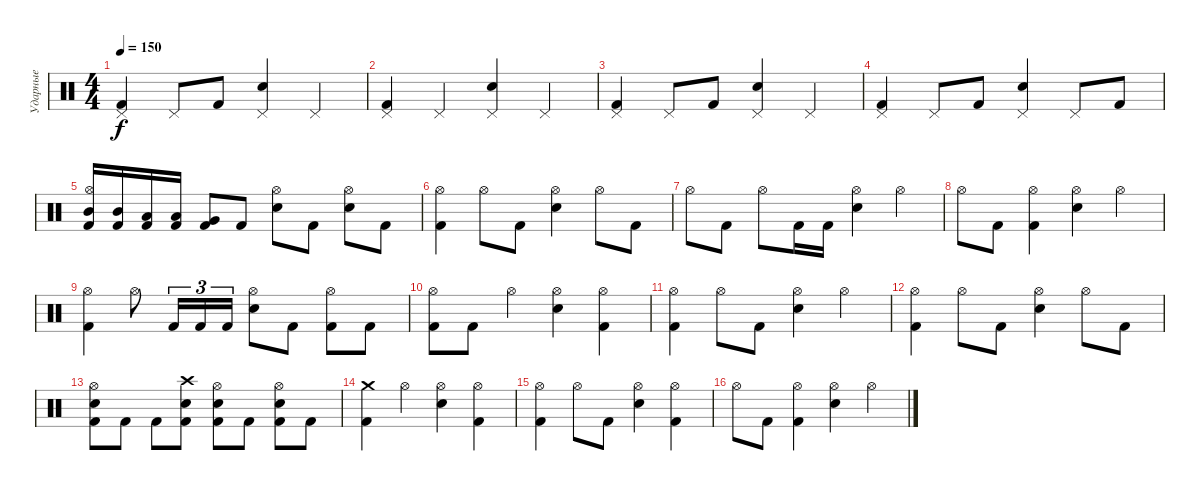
\track ("Ударные" "Ударные") {mute instrument percussion}
\staff {score}
\articulation defaults
\ts (4 4)
\tempo 150
\clef neutral
\ks c
("Pedal Hi-Hat (hit)" "Kick (hit) 2").4{dy f} "Pedal Hi-Hat (hit)".8 "Kick (hit) 2".8 ("Pedal Hi-Hat (hit)" "Snare (hit) 2").4 "Pedal Hi-Hat (hit)".4 |
("Pedal Hi-Hat (hit)" "Kick (hit) 2").4 "Pedal Hi-Hat (hit)".4 ("Pedal Hi-Hat (hit)" "Snare (hit) 2").4 "Pedal Hi-Hat (hit)".4 |
("Pedal Hi-Hat (hit)" "Kick (hit) 2").4 "Pedal Hi-Hat (hit)".8 "Kick (hit) 2".8 ("Pedal Hi-Hat (hit)" "Snare (hit) 2").4 "Pedal Hi-Hat (hit)".4 |
("Pedal Hi-Hat (hit)" "Kick (hit) 2").4 "Pedal Hi-Hat (hit)".8 "Kick (hit) 2".8 ("Pedal Hi-Hat (hit)" "Snare (hit) 2").4 "Pedal Hi-Hat (hit)".8 "Kick (hit) 2".8 |
("Hi-Hat (open)" "Mid Tom (hit)" "Kick (hit) 2").16 ("Mid Tom (hit)" "Kick (hit) 2").16 ("Low Tom (hit)" "Kick (hit) 2").16 ("Low Tom (hit)" "Kick (hit) 2").16 ("Very Low Tom (hit)" "Kick (hit) 2").8 "Kick (hit) 2".8 ("Hi-Hat (open)" "Snare (hit) 2").8 "Kick (hit) 2".8 ("Hi-Hat (open)" "Snare (hit) 2").8 "Kick (hit) 2".8 |
("Hi-Hat (open)" "Kick (hit) 2").4 "Hi-Hat (open)".8 "Kick (hit) 2".8 ("Hi-Hat (open)" "Snare (hit) 2").4 "Hi-Hat (open)".8 "Kick (hit) 2".8 |
"Hi-Hat (open)".8 "Kick (hit) 2".8 "Hi-Hat (open)".8 "Kick (hit) 2".16 "Kick (hit) 2".16 ("Hi-Hat (open)" "Snare (hit) 2").4 "Hi-Hat (open)".4 |
"Hi-Hat (open)".8 "Kick (hit) 2".8 ("Hi-Hat (open)" "Kick (hit) 2").4 ("Hi-Hat (open)" "Snare (hit) 2").4 "Hi-Hat (open)".4 |
("Hi-Hat (open)" "Kick (hit) 2").4 "Hi-Hat (open)".8 "Kick (hit) 2".16{tu (3 2)} "Kick (hit) 2".16{tu (3 2)} "Kick (hit) 2".16{tu (3 2)} ("Hi-Hat (open)" "Snare (hit) 2").8 "Kick (hit) 2".8 ("Hi-Hat (open)" "Kick (hit) 2").8 "Kick (hit) 2".8 |
("Hi-Hat (open)" "Kick (hit) 2").8 "Kick (hit) 2".8 "Hi-Hat (open)".4 ("Hi-Hat (open)" "Snare (hit) 2").4 ("Hi-Hat (open)" "Kick (hit) 2").4 |
("Hi-Hat (open)" "Kick (hit) 2").4 "Hi-Hat (open)".8 "Kick (hit) 2".8 ("Hi-Hat (open)" "Snare (hit) 2").4 "Hi-Hat (open)".4 |
("Hi-Hat (open)" "Kick (hit) 2").4 "Hi-Hat (open)".8 "Kick (hit) 2".8 ("Hi-Hat (open)" "Snare (hit) 2").4 "Hi-Hat (open)".8 "Kick (hit) 2".8 |
("Hi-Hat (open)" "Snare (hit) 2" "Kick (hit) 2").8 "Kick (hit) 2".8 "Kick (hit) 2".8 ("Crash high (hit)" "Snare (hit) 2" "Kick (hit) 2").8 ("Hi-Hat (open)" "Snare (hit) 2" "Kick (hit) 2").8 "Kick (hit) 2".8 ("Hi-Hat (open)" "Snare (hit) 2" "Kick (hit) 2").8 "Kick (hit) 2".8 |
("Crash medium (hit)" "Kick (hit) 2").4 "Hi-Hat (open)".4 ("Hi-Hat (open)" "Snare (hit) 2").4 ("Hi-Hat (open)" "Kick (hit) 2").4 |
("Hi-Hat (open)" "Kick (hit) 2").4 "Hi-Hat (open)".8 "Kick (hit) 2".8 ("Hi-Hat (open)" "Snare (hit) 2").4 ("Hi-Hat (open)" "Kick (hit) 2").4 |
"Hi-Hat (open)".8 "Kick (hit) 2".8 ("Hi-Hat (open)" "Kick (hit) 2").4 ("Hi-Hat (open)" "Snare (hit) 2").4 "Hi-Hat (open)".4
